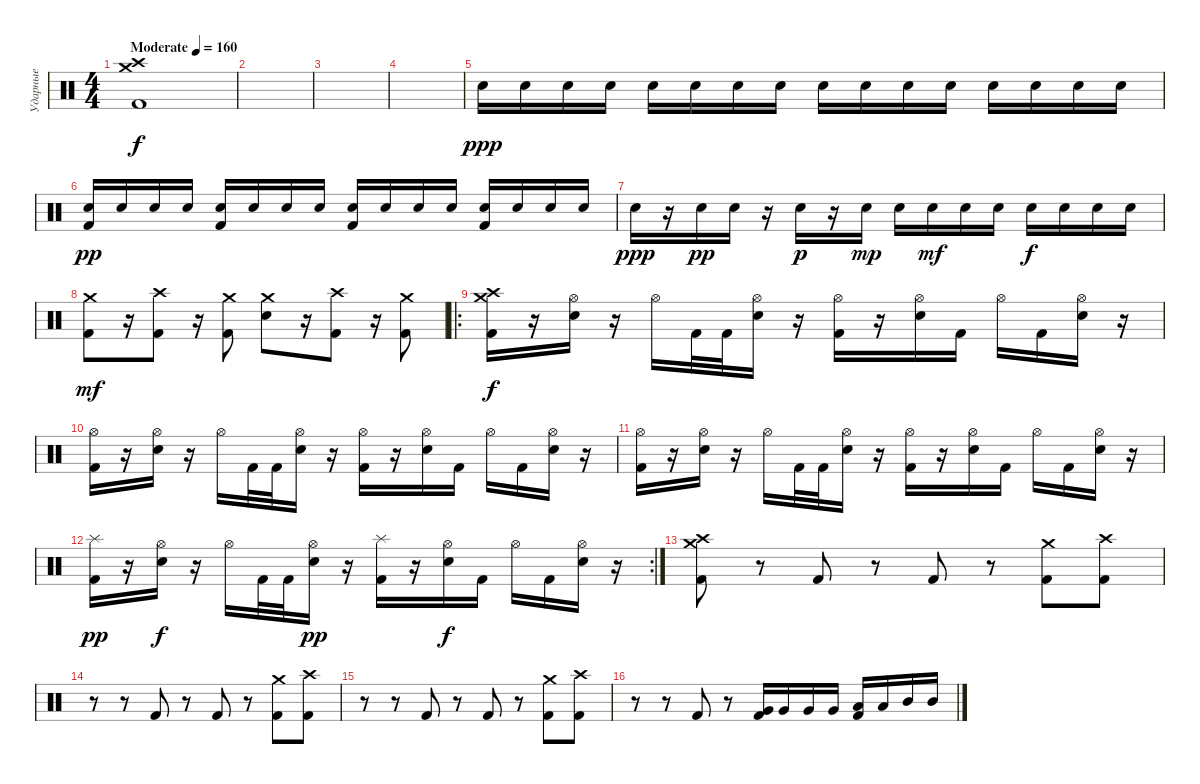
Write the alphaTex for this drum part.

\track ("Ударные" "Ударные") {instrument percussion}
\staff
\articulation defaults
\ts (4 4)
\tempo (160 "Moderate")
\clef neutral
\ks c
("Crash high (hit)" "Crash medium (hit)" "Kick (hit) 2").1{dy f} |
|
|
|
"Snare (hit) 2".16{dy ppp} "Snare (hit) 2".16 "Snare (hit) 2".16 "Snare (hit) 2".16 "Snare (hit) 2".16 "Snare (hit) 2".16 "Snare (hit) 2".16 "Snare (hit) 2".16 "Snare (hit) 2".16 "Snare (hit) 2".16 "Snare (hit) 2".16 "Snare (hit) 2".16 "Snare (hit) 2".16 "Snare (hit) 2".16 "Snare (hit) 2".16 "Snare (hit) 2".16 |
("Snare (hit) 2" "Kick (hit) 2").16{dy pp} "Snare (hit) 2".16 "Snare (hit) 2".16 "Snare (hit) 2".16 ("Snare (hit) 2" "Kick (hit) 2").16 "Snare (hit) 2".16 "Snare (hit) 2".16 "Snare (hit) 2".16 ("Snare (hit) 2" "Kick (hit) 2").16 "Snare (hit) 2".16 "Snare (hit) 2".16 "Snare (hit) 2".16 ("Snare (hit) 2" "Kick (hit) 2").16 "Snare (hit) 2".16 "Snare (hit) 2".16 "Snare (hit) 2".16 |
"Snare (hit) 2".16{dy ppp} r.16 "Snare (hit) 2".16{dy pp} "Snare (hit) 2".16 r.16 "Snare (hit) 2".16{dy p} r.16 "Snare (hit) 2".16{dy mp} "Snare (hit) 2".16 "Snare (hit) 2".16{dy mf} "Snare (hit) 2".16 "Snare (hit) 2".16 "Snare (hit) 2".16{dy f} "Snare (hit) 2".16 "Snare (hit) 2".16 "Snare (hit) 2".16 |
("Crash medium (hit)" "Kick (hit) 2").8{dy mf} r.16 ("Crash high (hit)" "Kick (hit) 2").8 r.16 ("Crash medium (hit)" "Kick (hit) 2").8 ("Crash medium (hit)" "Snare (hit) 2").8 r.16 ("Crash high (hit)" "Kick (hit) 2").8 r.16 ("Crash medium (hit)" "Kick (hit) 2").8 |
\ro
("Crash high (hit)" "Crash medium (hit)" "Kick (hit) 2").16{dy f} r.16 ("Hi-Hat (open)" "Snare (hit) 2").16 r.16 "Hi-Hat (open)".16 "Kick (hit) 2".32 "Kick (hit) 2".32 ("Hi-Hat (open)" "Snare (hit) 2").16 r.16 ("Hi-Hat (open)" "Kick (hit) 2").16 r.16 ("Hi-Hat (open)" "Snare (hit) 2").16 "Kick (hit) 2".16 "Hi-Hat (open)".16 "Kick (hit) 2".16 ("Hi-Hat (open)" "Snare (hit) 2").16 r.16 |
("Hi-Hat (open)" "Kick (hit) 2").16 r.16 ("Hi-Hat (open)" "Snare (hit) 2").16 r.16 "Hi-Hat (open)".16 "Kick (hit) 2".32 "Kick (hit) 2".32 ("Hi-Hat (open)" "Snare (hit) 2").16 r.16 ("Hi-Hat (open)" "Kick (hit) 2").16 r.16 ("Hi-Hat (open)" "Snare (hit) 2").16 "Kick (hit) 2".16 "Hi-Hat (open)".16 "Kick (hit) 2".16 ("Hi-Hat (open)" "Snare (hit) 2").16 r.16 |
("Hi-Hat (open)" "Kick (hit) 2").16 r.16 ("Hi-Hat (open)" "Snare (hit) 2").16 r.16 "Hi-Hat (open)".16 "Kick (hit) 2".32 "Kick (hit) 2".32 ("Hi-Hat (open)" "Snare (hit) 2").16 r.16 ("Hi-Hat (open)" "Kick (hit) 2").16 r.16 ("Hi-Hat (open)" "Snare (hit) 2").16 "Kick (hit) 2".16 "Hi-Hat (open)".16 "Kick (hit) 2".16 ("Hi-Hat (open)" "Snare (hit) 2").16 r.16 |
\rc 2
("Splash (hit)" "Kick (hit) 2").16{dy pp} r.16 ("Hi-Hat (open)" "Snare (hit) 2").16{dy f} r.16 "Hi-Hat (open)".16 "Kick (hit) 2".32 "Kick (hit) 2".32 ("Hi-Hat (open)" "Snare (hit) 2").16{dy pp} r.16 ("Splash (hit)" "Kick (hit) 2").16 r.16 ("Hi-Hat (open)" "Snare (hit) 2").16{dy f} "Kick (hit) 2".16 "Hi-Hat (open)".16 "Kick (hit) 2".16 ("Hi-Hat (open)" "Snare (hit) 2").16 r.16 |
("Crash high (hit)" "Crash medium (hit)" "Kick (hit) 2").8 r.8 "Kick (hit) 2".8 r.8 "Kick (hit) 2".8 r.8 ("Crash medium (hit)" "Kick (hit) 2").8 ("Crash high (hit)" "Kick (hit) 2").8 |
r.8 r.8 "Kick (hit) 2".8 r.8 "Kick (hit) 2".8 r.8 ("Crash medium (hit)" "Kick (hit) 2").8 ("Crash high (hit)" "Kick (hit) 2").8 |
r.8 r.8 "Kick (hit) 2".8 r.8 "Kick (hit) 2".8 r.8 ("Crash medium (hit)" "Kick (hit) 2").8 ("Crash high (hit)" "Kick (hit) 2").8 |
r.8 r.8 "Kick (hit) 2".8 r.8 ("Very Low Tom (hit)" "Kick (hit) 2").16 "Very Low Tom (hit)".16 "Very Low Tom (hit)".16 "Very Low Tom (hit)".16 ("Low Tom (hit)" "Kick (hit) 2").16 "Low Tom (hit)".16 "Mid Tom (hit)".16 "Mid Tom (hit)".16
